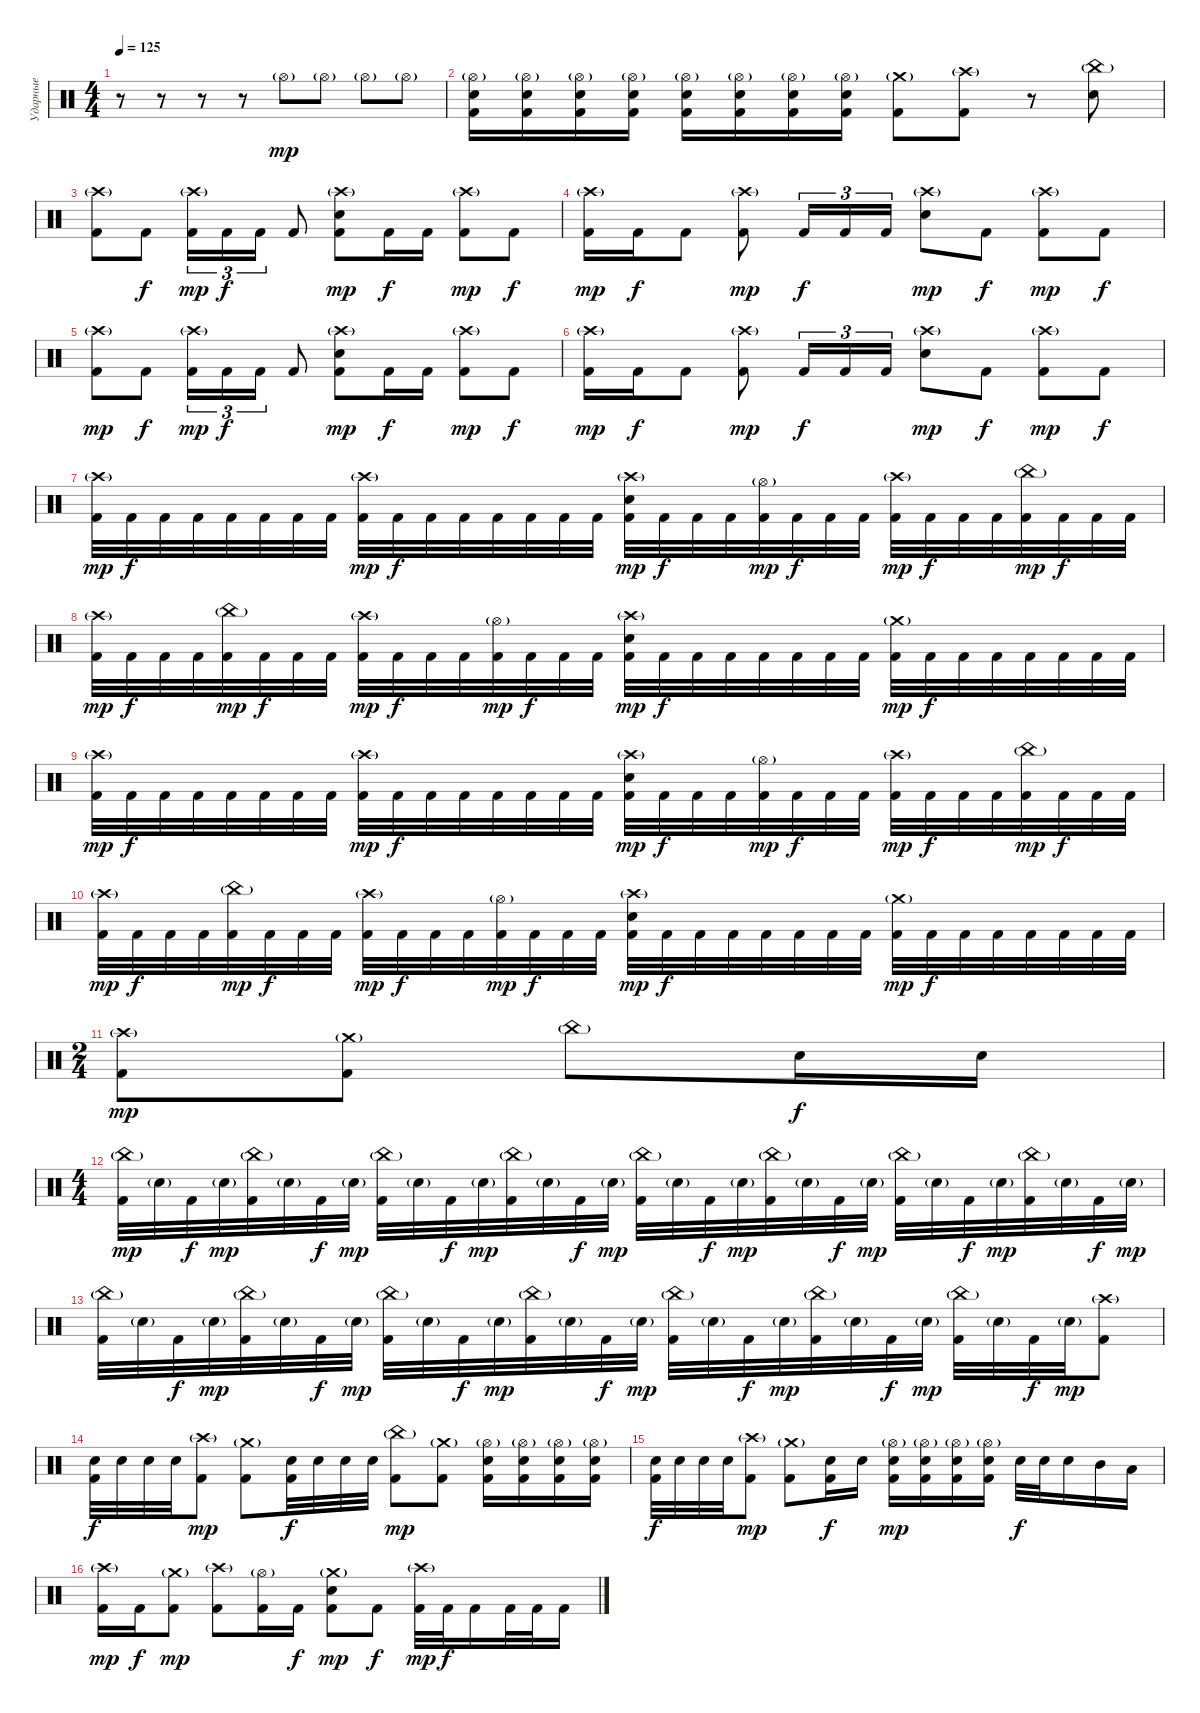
\track ("Ударные" "Ударные") {instrument percussion}
\staff {score}
\articulation defaults
\ts (4 4)
\tempo 125
\clef neutral
\ks c
r.8{dy mp} r.8 r.8 r.8 "Hi-Hat (open)"{g}.8 "Hi-Hat (open)"{g}.8 "Hi-Hat (open)"{g}.8 "Hi-Hat (open)"{g}.8 |
("Hi-Hat (open)"{g} "Electric Snare (hit)" "Kick (hit) 2").16 ("Hi-Hat (open)"{g} "Electric Snare (hit)" "Kick (hit) 2").16 ("Hi-Hat (open)"{g} "Electric Snare (hit)" "Kick (hit) 2").16 ("Hi-Hat (open)"{g} "Electric Snare (hit)" "Kick (hit) 2").16 ("Hi-Hat (open)"{g} "Electric Snare (hit)" "Kick (hit) 2").16 ("Hi-Hat (open)"{g} "Electric Snare (hit)" "Kick (hit) 2").16 ("Hi-Hat (open)"{g} "Electric Snare (hit)" "Kick (hit) 2").16 ("Hi-Hat (open)"{g} "Electric Snare (hit)" "Kick (hit) 2").16 ("Crash medium (hit)"{g} "Kick (hit) 2").8 ("Crash high (hit)"{g} "Kick (hit) 2").8 r.8 ("China (hit)"{g} "Electric Snare (hit)").8 |
("Crash high (hit)"{g} "Kick (hit) 2").8 "Kick (hit) 2".8{dy f} ("Crash high (hit)"{g} "Kick (hit) 2").16{tu (3 2) dy mp} "Kick (hit) 2".16{tu (3 2) dy f} "Kick (hit) 2".16{tu (3 2)} "Kick (hit) 2".8 ("Crash high (hit)"{g} "Electric Snare (hit)" "Kick (hit) 2").8{dy mp} "Kick (hit) 2".16{dy f} "Kick (hit) 2".16 ("Crash high (hit)"{g} "Kick (hit) 2").8{dy mp} "Kick (hit) 2".8{dy f} |
("Crash high (hit)"{g} "Kick (hit) 2").16{dy mp} "Kick (hit) 2".16{dy f} "Kick (hit) 2".8 ("Crash high (hit)"{g} "Kick (hit) 2").8{dy mp} "Kick (hit) 2".16{tu (3 2) dy f} "Kick (hit) 2".16{tu (3 2)} "Kick (hit) 2".16{tu (3 2)} ("Crash high (hit)"{g} "Electric Snare (hit)").8{dy mp} "Kick (hit) 2".8{dy f} ("Crash high (hit)"{g} "Kick (hit) 2").8{dy mp} "Kick (hit) 2".8{dy f} |
("Crash high (hit)"{g} "Kick (hit) 2").8{dy mp} "Kick (hit) 2".8{dy f} ("Crash high (hit)"{g} "Kick (hit) 2").16{tu (3 2) dy mp} "Kick (hit) 2".16{tu (3 2) dy f} "Kick (hit) 2".16{tu (3 2)} "Kick (hit) 2".8 ("Crash high (hit)"{g} "Electric Snare (hit)" "Kick (hit) 2").8{dy mp} "Kick (hit) 2".16{dy f} "Kick (hit) 2".16 ("Crash high (hit)"{g} "Kick (hit) 2").8{dy mp} "Kick (hit) 2".8{dy f} |
("Crash high (hit)"{g} "Kick (hit) 2").16{dy mp} "Kick (hit) 2".16{dy f} "Kick (hit) 2".8 ("Crash high (hit)"{g} "Kick (hit) 2").8{dy mp} "Kick (hit) 2".16{tu (3 2) dy f} "Kick (hit) 2".16{tu (3 2)} "Kick (hit) 2".16{tu (3 2)} ("Crash high (hit)"{g} "Electric Snare (hit)").8{dy mp} "Kick (hit) 2".8{dy f} ("Crash high (hit)"{g} "Kick (hit) 2").8{dy mp} "Kick (hit) 2".8{dy f} |
("Crash high (hit)"{g} "Kick (hit) 2").32{dy mp} "Kick (hit) 2".32{dy f} "Kick (hit) 2".32 "Kick (hit) 2".32 "Kick (hit) 2".32 "Kick (hit) 2".32 "Kick (hit) 2".32 "Kick (hit) 2".32 ("Crash high (hit)"{g} "Kick (hit) 2").32{dy mp} "Kick (hit) 2".32{dy f} "Kick (hit) 2".32 "Kick (hit) 2".32 "Kick (hit) 2".32 "Kick (hit) 2".32 "Kick (hit) 2".32 "Kick (hit) 2".32 ("Crash high (hit)"{g} "Electric Snare (hit)" "Kick (hit) 2").32{dy mp} "Kick (hit) 2".32{dy f} "Kick (hit) 2".32 "Kick (hit) 2".32 ("Hi-Hat (open)"{g} "Kick (hit) 2").32{dy mp} "Kick (hit) 2".32{dy f} "Kick (hit) 2".32 "Kick (hit) 2".32 ("Crash high (hit)"{g} "Kick (hit) 2").32{dy mp} "Kick (hit) 2".32{dy f} "Kick (hit) 2".32 "Kick (hit) 2".32 ("China (hit)"{g} "Kick (hit) 2").32{dy mp} "Kick (hit) 2".32{dy f} "Kick (hit) 2".32 "Kick (hit) 2".32 |
("Crash high (hit)"{g} "Kick (hit) 2").32{dy mp} "Kick (hit) 2".32{dy f} "Kick (hit) 2".32 "Kick (hit) 2".32 ("China (hit)"{g} "Kick (hit) 2").32{dy mp} "Kick (hit) 2".32{dy f} "Kick (hit) 2".32 "Kick (hit) 2".32 ("Crash high (hit)"{g} "Kick (hit) 2").32{dy mp} "Kick (hit) 2".32{dy f} "Kick (hit) 2".32 "Kick (hit) 2".32 ("Hi-Hat (open)"{g} "Kick (hit) 2").32{dy mp} "Kick (hit) 2".32{dy f} "Kick (hit) 2".32 "Kick (hit) 2".32 ("Crash high (hit)"{g} "Electric Snare (hit)" "Kick (hit) 2").32{dy mp} "Kick (hit) 2".32{dy f} "Kick (hit) 2".32 "Kick (hit) 2".32 "Kick (hit) 2".32 "Kick (hit) 2".32 "Kick (hit) 2".32 "Kick (hit) 2".32 ("Crash medium (hit)"{g} "Kick (hit) 2").32{dy mp} "Kick (hit) 2".32{dy f} "Kick (hit) 2".32 "Kick (hit) 2".32 "Kick (hit) 2".32 "Kick (hit) 2".32 "Kick (hit) 2".32 "Kick (hit) 2".32 |
("Crash high (hit)"{g} "Kick (hit) 2").32{dy mp} "Kick (hit) 2".32{dy f} "Kick (hit) 2".32 "Kick (hit) 2".32 "Kick (hit) 2".32 "Kick (hit) 2".32 "Kick (hit) 2".32 "Kick (hit) 2".32 ("Crash high (hit)"{g} "Kick (hit) 2").32{dy mp} "Kick (hit) 2".32{dy f} "Kick (hit) 2".32 "Kick (hit) 2".32 "Kick (hit) 2".32 "Kick (hit) 2".32 "Kick (hit) 2".32 "Kick (hit) 2".32 ("Crash high (hit)"{g} "Electric Snare (hit)" "Kick (hit) 2").32{dy mp} "Kick (hit) 2".32{dy f} "Kick (hit) 2".32 "Kick (hit) 2".32 ("Hi-Hat (open)"{g} "Kick (hit) 2").32{dy mp} "Kick (hit) 2".32{dy f} "Kick (hit) 2".32 "Kick (hit) 2".32 ("Crash high (hit)"{g} "Kick (hit) 2").32{dy mp} "Kick (hit) 2".32{dy f} "Kick (hit) 2".32 "Kick (hit) 2".32 ("China (hit)"{g} "Kick (hit) 2").32{dy mp} "Kick (hit) 2".32{dy f} "Kick (hit) 2".32 "Kick (hit) 2".32 |
("Crash high (hit)"{g} "Kick (hit) 2").32{dy mp} "Kick (hit) 2".32{dy f} "Kick (hit) 2".32 "Kick (hit) 2".32 ("China (hit)"{g} "Kick (hit) 2").32{dy mp} "Kick (hit) 2".32{dy f} "Kick (hit) 2".32 "Kick (hit) 2".32 ("Crash high (hit)"{g} "Kick (hit) 2").32{dy mp} "Kick (hit) 2".32{dy f} "Kick (hit) 2".32 "Kick (hit) 2".32 ("Hi-Hat (open)"{g} "Kick (hit) 2").32{dy mp} "Kick (hit) 2".32{dy f} "Kick (hit) 2".32 "Kick (hit) 2".32 ("Crash high (hit)"{g} "Electric Snare (hit)" "Kick (hit) 2").32{dy mp} "Kick (hit) 2".32{dy f} "Kick (hit) 2".32 "Kick (hit) 2".32 "Kick (hit) 2".32 "Kick (hit) 2".32 "Kick (hit) 2".32 "Kick (hit) 2".32 ("Crash medium (hit)"{g} "Kick (hit) 2").32{dy mp} "Kick (hit) 2".32{dy f} "Kick (hit) 2".32 "Kick (hit) 2".32 "Kick (hit) 2".32 "Kick (hit) 2".32 "Kick (hit) 2".32 "Kick (hit) 2".32 |
\ts (2 4)
("Crash high (hit)"{g} "Kick (hit) 2").8{dy mp} ("Crash medium (hit)"{g} "Kick (hit) 2").8 "China (hit)"{g}.8 "Electric Snare (hit)".16{dy f} "Electric Snare (hit)".16 |
\ts (4 4)
("China (hit)"{g} "Kick (hit) 2").32{dy mp} "Electric Snare (hit)"{g}.32 "Kick (hit) 2".32{dy f} "Electric Snare (hit)"{g}.32{dy mp} ("China (hit)"{g} "Kick (hit) 2").32 "Electric Snare (hit)"{g}.32 "Kick (hit) 2".32{dy f} "Electric Snare (hit)"{g}.32{dy mp} ("China (hit)"{g} "Kick (hit) 2").32 "Electric Snare (hit)"{g}.32 "Kick (hit) 2".32{dy f} "Electric Snare (hit)"{g}.32{dy mp} ("China (hit)"{g} "Kick (hit) 2").32 "Electric Snare (hit)"{g}.32 "Kick (hit) 2".32{dy f} "Electric Snare (hit)"{g}.32{dy mp} ("China (hit)"{g} "Kick (hit) 2").32 "Electric Snare (hit)"{g}.32 "Kick (hit) 2".32{dy f} "Electric Snare (hit)"{g}.32{dy mp} ("China (hit)"{g} "Kick (hit) 2").32 "Electric Snare (hit)"{g}.32 "Kick (hit) 2".32{dy f} "Electric Snare (hit)"{g}.32{dy mp} ("China (hit)"{g} "Kick (hit) 2").32 "Electric Snare (hit)"{g}.32 "Kick (hit) 2".32{dy f} "Electric Snare (hit)"{g}.32{dy mp} ("China (hit)"{g} "Kick (hit) 2").32 "Electric Snare (hit)"{g}.32 "Kick (hit) 2".32{dy f} "Electric Snare (hit)"{g}.32{dy mp} |
("China (hit)"{g} "Kick (hit) 2").32 "Electric Snare (hit)"{g}.32 "Kick (hit) 2".32{dy f} "Electric Snare (hit)"{g}.32{dy mp} ("China (hit)"{g} "Kick (hit) 2").32 "Electric Snare (hit)"{g}.32 "Kick (hit) 2".32{dy f} "Electric Snare (hit)"{g}.32{dy mp} ("China (hit)"{g} "Kick (hit) 2").32 "Electric Snare (hit)"{g}.32 "Kick (hit) 2".32{dy f} "Electric Snare (hit)"{g}.32{dy mp} ("China (hit)"{g} "Kick (hit) 2").32 "Electric Snare (hit)"{g}.32 "Kick (hit) 2".32{dy f} "Electric Snare (hit)"{g}.32{dy mp} ("China (hit)"{g} "Kick (hit) 2").32 "Electric Snare (hit)"{g}.32 "Kick (hit) 2".32{dy f} "Electric Snare (hit)"{g}.32{dy mp} ("China (hit)"{g} "Kick (hit) 2").32 "Electric Snare (hit)"{g}.32 "Kick (hit) 2".32{dy f} "Electric Snare (hit)"{g}.32{dy mp} ("China (hit)"{g} "Kick (hit) 2").32 "Electric Snare (hit)"{g}.32 "Kick (hit) 2".32{dy f} "Electric Snare (hit)"{g}.32{dy mp} ("Crash high (hit)"{g} "Kick (hit) 2").8 |
("Electric Snare (hit)" "Kick (hit) 2").32{dy f} "Electric Snare (hit)".32 "Electric Snare (hit)".32 "Electric Snare (hit)".32 ("Crash high (hit)"{g} "Kick (hit) 2").8{dy mp} ("Crash medium (hit)"{g} "Kick (hit) 2").8 ("Electric Snare (hit)" "Kick (hit) 2").32{dy f} "Electric Snare (hit)".32 "Electric Snare (hit)".32 "Electric Snare (hit)".32 ("China (hit)"{g} "Kick (hit) 2").8{dy mp} ("Crash medium (hit)"{g} "Kick (hit) 2").8 ("Hi-Hat (open)"{g} "Electric Snare (hit)" "Kick (hit) 2").16 ("Hi-Hat (open)"{g} "Electric Snare (hit)" "Kick (hit) 2").16 ("Hi-Hat (open)"{g} "Electric Snare (hit)" "Kick (hit) 2").16 ("Hi-Hat (open)"{g} "Electric Snare (hit)" "Kick (hit) 2").16 |
("Electric Snare (hit)" "Kick (hit) 2").32{dy f} "Electric Snare (hit)".32 "Electric Snare (hit)".32 "Electric Snare (hit)".32 ("Crash high (hit)"{g} "Kick (hit) 2").8{dy mp} ("Crash medium (hit)"{g} "Kick (hit) 2").8 ("Electric Snare (hit)" "Kick (hit) 2").16{dy f} "Electric Snare (hit)".16 ("Hi-Hat (open)"{g} "Electric Snare (hit)" "Kick (hit) 2").16{dy mp} ("Hi-Hat (open)"{g} "Electric Snare (hit)" "Kick (hit) 2").16 ("Hi-Hat (open)"{g} "Electric Snare (hit)" "Kick (hit) 2").16 ("Hi-Hat (open)"{g} "Electric Snare (hit)" "Kick (hit) 2").16 "Electric Snare (hit)".32{dy f} "Electric Snare (hit)".32 "Electric Snare (hit)".16 "Mid Tom (hit)".16 "Low Tom (hit)".16 |
("Crash high (hit)"{g} "Kick (hit) 2").16{dy mp} "Kick (hit) 2".16{dy f} ("Crash medium (hit)"{g} "Kick (hit) 2").8{dy mp} ("Crash high (hit)"{g} "Kick (hit) 2").8 ("Hi-Hat (open)"{g} "Kick (hit) 2").16 "Kick (hit) 2".16{dy f} ("Crash medium (hit)"{g} "Electric Snare (hit)" "Kick (hit) 2").8{dy mp} "Kick (hit) 2".8{dy f} ("Crash high (hit)"{g} "Kick (hit) 2").32{dy mp} "Kick (hit) 2".32{dy f} "Kick (hit) 2".16 "Kick (hit) 2".32 "Kick (hit) 2".32 "Kick (hit) 2".16
